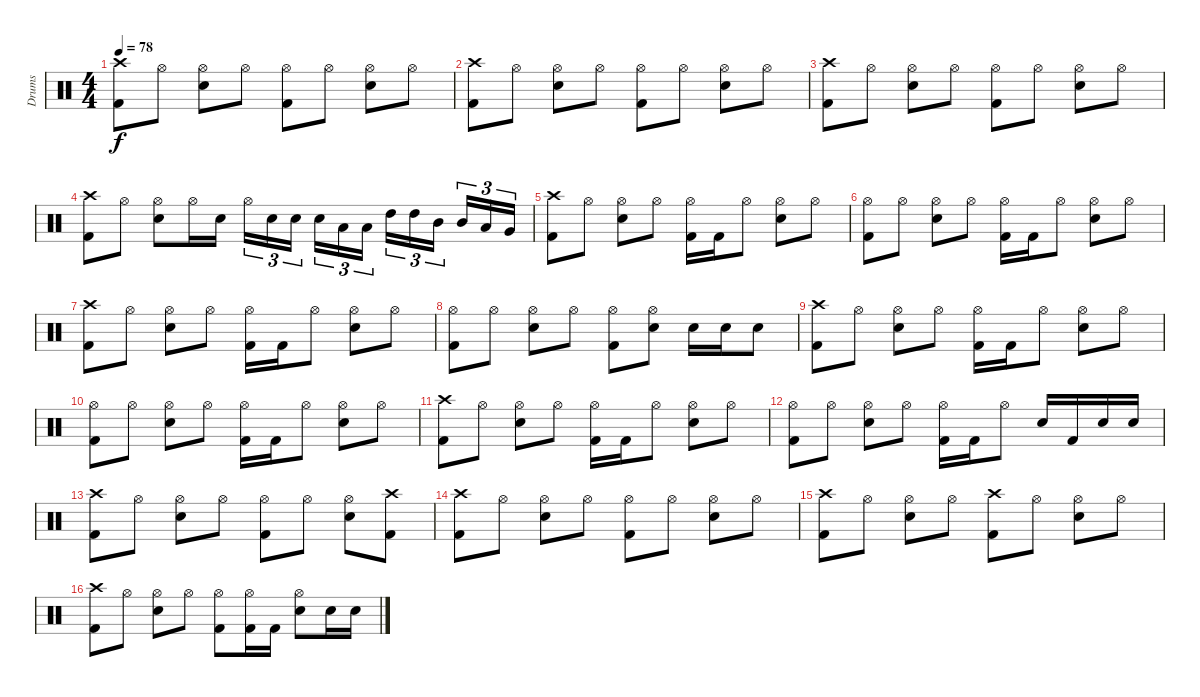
\track ("Drums" "Drums") {instrument percussion}
\staff {score}
\articulation defaults
\ts (4 4)
\tempo 78
\clef neutral
\ks c
("Crash high (hit)" "Kick (hit) 2").8{dy f} "Hi-Hat (open)".8 ("Hi-Hat (open)" "Snare (hit) 2").8 "Hi-Hat (open)".8 ("Hi-Hat (open)" "Kick (hit) 2").8 "Hi-Hat (open)".8 ("Hi-Hat (open)" "Snare (hit) 2").8 "Hi-Hat (open)".8 |
("Crash high (hit)" "Kick (hit) 2").8 "Hi-Hat (open)".8 ("Hi-Hat (open)" "Snare (hit) 2").8 "Hi-Hat (open)".8 ("Hi-Hat (open)" "Kick (hit) 2").8 "Hi-Hat (open)".8 ("Hi-Hat (open)" "Snare (hit) 2").8 "Hi-Hat (open)".8 |
("Crash high (hit)" "Kick (hit) 2").8 "Hi-Hat (open)".8 ("Hi-Hat (open)" "Snare (hit) 2").8 "Hi-Hat (open)".8 ("Hi-Hat (open)" "Kick (hit) 2").8 "Hi-Hat (open)".8 ("Hi-Hat (open)" "Snare (hit) 2").8 "Hi-Hat (open)".8 |
("Crash high (hit)" "Kick (hit) 2").8 "Hi-Hat (open)".8 ("Hi-Hat (open)" "Snare (hit) 2").8 "Hi-Hat (open)".16 "Snare (hit) 2".16 "Hi-Hat (open)".16{tu (3 2)} "Snare (hit) 2".16{tu (3 2)} "Snare (hit) 2".16{tu (3 2)} "Snare (hit) 2".16{tu (3 2)} "Low Floor Tom (hit)".16{tu (3 2)} "Low Floor Tom (hit)".16{tu (3 2)} "High Tom (hit)".16{tu (3 2)} "High Tom (hit)".16{tu (3 2)} "Mid Tom (hit)".16{tu (3 2)} "Mid Tom (hit)".16{tu (3 2)} "Low Tom (hit)".16{tu (3 2)} "Very Low Tom (hit)".16{tu (3 2)} |
("Crash high (hit)" "Kick (hit) 2").8 "Hi-Hat (open)".8 ("Hi-Hat (open)" "Snare (hit) 2").8 "Hi-Hat (open)".8 ("Hi-Hat (open)" "Kick (hit) 2").16 "Kick (hit) 2".16 "Hi-Hat (open)".8 ("Hi-Hat (open)" "Snare (hit) 2").8 "Hi-Hat (open)".8 |
("Hi-Hat (open)" "Kick (hit) 2").8 "Hi-Hat (open)".8 ("Hi-Hat (open)" "Snare (hit) 2").8 "Hi-Hat (open)".8 ("Hi-Hat (open)" "Kick (hit) 2").16 "Kick (hit) 2".16 "Hi-Hat (open)".8 ("Hi-Hat (open)" "Snare (hit) 2").8 "Hi-Hat (open)".8 |
("Crash high (hit)" "Kick (hit) 2").8 "Hi-Hat (open)".8 ("Hi-Hat (open)" "Snare (hit) 2").8 "Hi-Hat (open)".8 ("Hi-Hat (open)" "Kick (hit) 2").16 "Kick (hit) 2".16 "Hi-Hat (open)".8 ("Hi-Hat (open)" "Snare (hit) 2").8 "Hi-Hat (open)".8 |
("Hi-Hat (open)" "Kick (hit) 2").8 "Hi-Hat (open)".8 ("Hi-Hat (open)" "Snare (hit) 2").8 "Hi-Hat (open)".8 ("Hi-Hat (open)" "Kick (hit) 2").8 ("Hi-Hat (open)" "Snare (hit) 2").8 "Snare (hit) 2".16 "Snare (hit) 2".16 "Snare (hit) 2".8 |
("Crash high (hit)" "Kick (hit) 2").8 "Hi-Hat (open)".8 ("Hi-Hat (open)" "Snare (hit) 2").8 "Hi-Hat (open)".8 ("Hi-Hat (open)" "Kick (hit) 2").16 "Kick (hit) 2".16 "Hi-Hat (open)".8 ("Hi-Hat (open)" "Snare (hit) 2").8 "Hi-Hat (open)".8 |
("Hi-Hat (open)" "Kick (hit) 2").8 "Hi-Hat (open)".8 ("Hi-Hat (open)" "Snare (hit) 2").8 "Hi-Hat (open)".8 ("Hi-Hat (open)" "Kick (hit) 2").16 "Kick (hit) 2".16 "Hi-Hat (open)".8 ("Hi-Hat (open)" "Snare (hit) 2").8 "Hi-Hat (open)".8 |
("Crash high (hit)" "Kick (hit) 2").8 "Hi-Hat (open)".8 ("Hi-Hat (open)" "Snare (hit) 2").8 "Hi-Hat (open)".8 ("Hi-Hat (open)" "Kick (hit) 2").16 "Kick (hit) 2".16 "Hi-Hat (open)".8 ("Hi-Hat (open)" "Snare (hit) 2").8 "Hi-Hat (open)".8 |
("Hi-Hat (open)" "Kick (hit) 2").8 "Hi-Hat (open)".8 ("Hi-Hat (open)" "Snare (hit) 2").8 "Hi-Hat (open)".8 ("Hi-Hat (open)" "Kick (hit) 2").16 "Kick (hit) 2".16 "Hi-Hat (open)".8 "Snare (hit) 2".16 "Kick (hit) 2".16 "Snare (hit) 2".16 "Snare (hit) 2".16 |
("Crash high (hit)" "Kick (hit) 2").8 "Hi-Hat (open)".8 ("Hi-Hat (open)" "Snare (hit) 2").8 "Hi-Hat (open)".8 ("Hi-Hat (open)" "Kick (hit) 2").8 "Hi-Hat (open)".8 ("Hi-Hat (open)" "Snare (hit) 2").8 ("Crash high (hit)" "Kick (hit) 2").8 |
("Crash high (hit)" "Kick (hit) 2").8 "Hi-Hat (open)".8 ("Hi-Hat (open)" "Snare (hit) 2").8 "Hi-Hat (open)".8 ("Hi-Hat (open)" "Kick (hit) 2").8 "Hi-Hat (open)".8 ("Hi-Hat (open)" "Snare (hit) 2").8 "Hi-Hat (open)".8 |
("Crash high (hit)" "Kick (hit) 2").8 "Hi-Hat (open)".8 ("Hi-Hat (open)" "Snare (hit) 2").8 "Hi-Hat (open)".8 ("Crash high (hit)" "Kick (hit) 2").8 "Hi-Hat (open)".8 ("Hi-Hat (open)" "Snare (hit) 2").8 "Hi-Hat (open)".8 |
("Crash high (hit)" "Kick (hit) 2").8 "Hi-Hat (open)".8 ("Hi-Hat (open)" "Snare (hit) 2").8 "Hi-Hat (open)".8 ("Hi-Hat (open)" "Kick (hit) 2").8 ("Hi-Hat (open)" "Kick (hit) 2").16 "Kick (hit) 2".16 ("Hi-Hat (open)" "Snare (hit) 2").8 "Snare (hit) 2".16 "Snare (hit) 2".16
